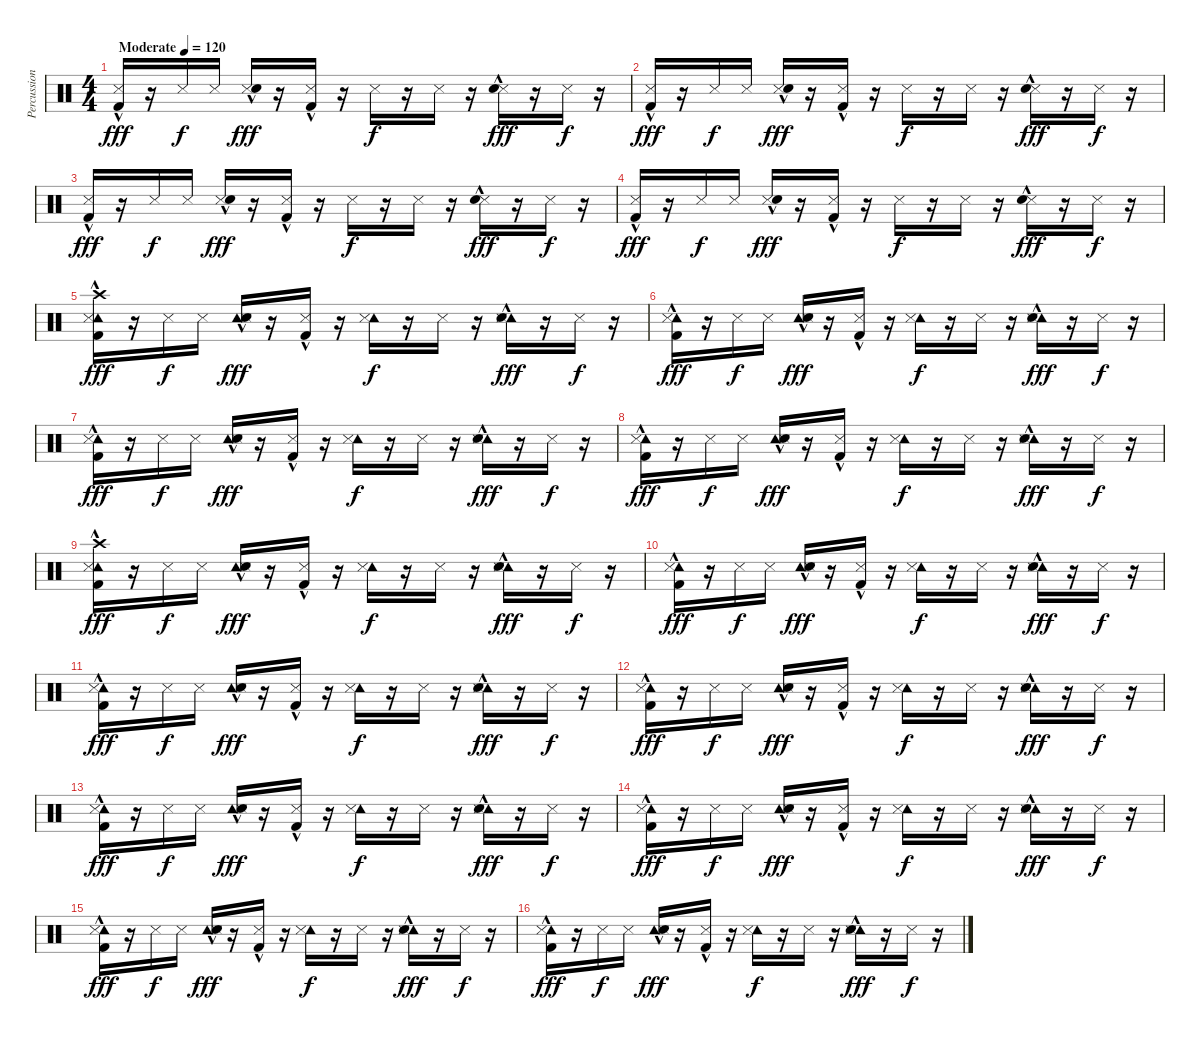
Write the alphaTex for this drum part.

\track ("Percussion" "Percussion") {instrument percussion}
\staff {score}
\articulation defaults
\ts (4 4)
\tempo (120 "Moderate")
\clef neutral
\ks c
("Snare (side stick) 3" "Kick (hit) 2"{hac}).16{dy fff} r.16 "Snare (side stick) 3".16{dy f} "Snare (side stick) 3".16 ("Snare (side stick) 3" "Snare (hit) 2"{hac}).16{dy fff} r.16 ("Snare (side stick) 3" "Kick (hit) 2"{hac}).16 r.16 "Snare (side stick) 3".16{dy f} r.16 "Snare (side stick) 3".16 r.16 ("Snare (side stick) 3" "Snare (hit) 2"{hac}).16{dy fff} r.16 "Snare (side stick) 3".16{dy f} r.16 |
("Snare (side stick) 3" "Kick (hit) 2"{hac}).16{dy fff} r.16 "Snare (side stick) 3".16{dy f} "Snare (side stick) 3".16 ("Snare (side stick) 3" "Snare (hit) 2"{hac}).16{dy fff} r.16 ("Snare (side stick) 3" "Kick (hit) 2"{hac}).16 r.16 "Snare (side stick) 3".16{dy f} r.16 "Snare (side stick) 3".16 r.16 ("Snare (side stick) 3" "Snare (hit) 2"{hac}).16{dy fff} r.16 "Snare (side stick) 3".16{dy f} r.16 |
("Snare (side stick) 3" "Kick (hit) 2"{hac}).16{dy fff} r.16 "Snare (side stick) 3".16{dy f} "Snare (side stick) 3".16 ("Snare (side stick) 3" "Snare (hit) 2"{hac}).16{dy fff} r.16 ("Snare (side stick) 3" "Kick (hit) 2"{hac}).16 r.16 "Snare (side stick) 3".16{dy f} r.16 "Snare (side stick) 3".16 r.16 ("Snare (side stick) 3" "Snare (hit) 2"{hac}).16{dy fff} r.16 "Snare (side stick) 3".16{dy f} r.16 |
("Snare (side stick) 3" "Kick (hit) 2"{hac}).16{dy fff} r.16 "Snare (side stick) 3".16{dy f} "Snare (side stick) 3".16 ("Snare (side stick) 3" "Snare (hit) 2"{hac}).16{dy fff} r.16 ("Snare (side stick) 3" "Kick (hit) 2"{hac}).16 r.16 "Snare (side stick) 3".16{dy f} r.16 "Snare (side stick) 3".16 r.16 ("Snare (side stick) 3" "Snare (hit) 2"{hac}).16{dy fff} r.16 "Snare (side stick) 3".16{dy f} r.16 |
("Tambourine (hit)" "Snare (side stick) 3" "Crash high (hit)" "Kick (hit) 2"{hac}).16{dy fff} r.16 "Snare (side stick) 3".16{dy f} "Snare (side stick) 3".16 ("Tambourine (hit)" "Snare (side stick) 3" "Snare (hit) 2"{hac}).16{dy fff} r.16 ("Snare (side stick) 3" "Kick (hit) 2"{hac}).16 r.16 ("Tambourine (hit)" "Snare (side stick) 3").16{dy f} r.16 "Snare (side stick) 3".16 r.16 ("Tambourine (hit)" "Snare (side stick) 3" "Snare (hit) 2"{hac}).16{dy fff} r.16 "Snare (side stick) 3".16{dy f} r.16 |
("Tambourine (hit)" "Snare (side stick) 3" "Kick (hit) 2"{hac}).16{dy fff} r.16 "Snare (side stick) 3".16{dy f} "Snare (side stick) 3".16 ("Tambourine (hit)" "Snare (side stick) 3" "Snare (hit) 2"{hac}).16{dy fff} r.16 ("Snare (side stick) 3" "Kick (hit) 2"{hac}).16 r.16 ("Tambourine (hit)" "Snare (side stick) 3").16{dy f} r.16 "Snare (side stick) 3".16 r.16 ("Tambourine (hit)" "Snare (side stick) 3" "Snare (hit) 2"{hac}).16{dy fff} r.16 "Snare (side stick) 3".16{dy f} r.16 |
("Tambourine (hit)" "Snare (side stick) 3" "Kick (hit) 2"{hac}).16{dy fff} r.16 "Snare (side stick) 3".16{dy f} "Snare (side stick) 3".16 ("Tambourine (hit)" "Snare (side stick) 3" "Snare (hit) 2"{hac}).16{dy fff} r.16 ("Snare (side stick) 3" "Kick (hit) 2"{hac}).16 r.16 ("Tambourine (hit)" "Snare (side stick) 3").16{dy f} r.16 "Snare (side stick) 3".16 r.16 ("Tambourine (hit)" "Snare (side stick) 3" "Snare (hit) 2"{hac}).16{dy fff} r.16 "Snare (side stick) 3".16{dy f} r.16 |
("Tambourine (hit)" "Snare (side stick) 3" "Kick (hit) 2"{hac}).16{dy fff} r.16 "Snare (side stick) 3".16{dy f} "Snare (side stick) 3".16 ("Tambourine (hit)" "Snare (side stick) 3" "Snare (hit) 2"{hac}).16{dy fff} r.16 ("Snare (side stick) 3" "Kick (hit) 2"{hac}).16 r.16 ("Tambourine (hit)" "Snare (side stick) 3").16{dy f} r.16 "Snare (side stick) 3".16 r.16 ("Tambourine (hit)" "Snare (side stick) 3" "Snare (hit) 2"{hac}).16{dy fff} r.16 "Snare (side stick) 3".16{dy f} r.16 |
("Tambourine (hit)" "Snare (side stick) 3" "Crash high (hit)" "Kick (hit) 2"{hac}).16{dy fff} r.16 "Snare (side stick) 3".16{dy f} "Snare (side stick) 3".16 ("Tambourine (hit)" "Snare (side stick) 3" "Snare (hit) 2"{hac}).16{dy fff} r.16 ("Snare (side stick) 3" "Kick (hit) 2"{hac}).16 r.16 ("Tambourine (hit)" "Snare (side stick) 3").16{dy f} r.16 "Snare (side stick) 3".16 r.16 ("Tambourine (hit)" "Snare (side stick) 3" "Snare (hit) 2"{hac}).16{dy fff} r.16 "Snare (side stick) 3".16{dy f} r.16 |
("Tambourine (hit)" "Snare (side stick) 3" "Kick (hit) 2"{hac}).16{dy fff} r.16 "Snare (side stick) 3".16{dy f} "Snare (side stick) 3".16 ("Tambourine (hit)" "Snare (side stick) 3" "Snare (hit) 2"{hac}).16{dy fff} r.16 ("Snare (side stick) 3" "Kick (hit) 2"{hac}).16 r.16 ("Tambourine (hit)" "Snare (side stick) 3").16{dy f} r.16 "Snare (side stick) 3".16 r.16 ("Tambourine (hit)" "Snare (side stick) 3" "Snare (hit) 2"{hac}).16{dy fff} r.16 "Snare (side stick) 3".16{dy f} r.16 |
("Tambourine (hit)" "Snare (side stick) 3" "Kick (hit) 2"{hac}).16{dy fff} r.16 "Snare (side stick) 3".16{dy f} "Snare (side stick) 3".16 ("Tambourine (hit)" "Snare (side stick) 3" "Snare (hit) 2"{hac}).16{dy fff} r.16 ("Snare (side stick) 3" "Kick (hit) 2"{hac}).16 r.16 ("Tambourine (hit)" "Snare (side stick) 3").16{dy f} r.16 "Snare (side stick) 3".16 r.16 ("Tambourine (hit)" "Snare (side stick) 3" "Snare (hit) 2"{hac}).16{dy fff} r.16 "Snare (side stick) 3".16{dy f} r.16 |
("Tambourine (hit)" "Snare (side stick) 3" "Kick (hit) 2"{hac}).16{dy fff} r.16 "Snare (side stick) 3".16{dy f} "Snare (side stick) 3".16 ("Tambourine (hit)" "Snare (side stick) 3" "Snare (hit) 2"{hac}).16{dy fff} r.16 ("Snare (side stick) 3" "Kick (hit) 2"{hac}).16 r.16 ("Tambourine (hit)" "Snare (side stick) 3").16{dy f} r.16 "Snare (side stick) 3".16 r.16 ("Tambourine (hit)" "Snare (side stick) 3" "Snare (hit) 2"{hac}).16{dy fff} r.16 "Snare (side stick) 3".16{dy f} r.16 |
("Tambourine (hit)" "Snare (side stick) 3" "Kick (hit) 2"{hac}).16{dy fff} r.16 "Snare (side stick) 3".16{dy f} "Snare (side stick) 3".16 ("Tambourine (hit)" "Snare (side stick) 3" "Snare (hit) 2"{hac}).16{dy fff} r.16 ("Snare (side stick) 3" "Kick (hit) 2"{hac}).16 r.16 ("Tambourine (hit)" "Snare (side stick) 3").16{dy f} r.16 "Snare (side stick) 3".16 r.16 ("Tambourine (hit)" "Snare (side stick) 3" "Snare (hit) 2"{hac}).16{dy fff} r.16 "Snare (side stick) 3".16{dy f} r.16 |
("Tambourine (hit)" "Snare (side stick) 3" "Kick (hit) 2"{hac}).16{dy fff} r.16 "Snare (side stick) 3".16{dy f} "Snare (side stick) 3".16 ("Tambourine (hit)" "Snare (side stick) 3" "Snare (hit) 2"{hac}).16{dy fff} r.16 ("Snare (side stick) 3" "Kick (hit) 2"{hac}).16 r.16 ("Tambourine (hit)" "Snare (side stick) 3").16{dy f} r.16 "Snare (side stick) 3".16 r.16 ("Tambourine (hit)" "Snare (side stick) 3" "Snare (hit) 2"{hac}).16{dy fff} r.16 "Snare (side stick) 3".16{dy f} r.16 |
("Tambourine (hit)" "Snare (side stick) 3" "Kick (hit) 2"{hac}).16{dy fff} r.16 "Snare (side stick) 3".16{dy f} "Snare (side stick) 3".16 ("Tambourine (hit)" "Snare (side stick) 3" "Snare (hit) 2"{hac}).16{dy fff} r.16 ("Snare (side stick) 3" "Kick (hit) 2"{hac}).16 r.16 ("Tambourine (hit)" "Snare (side stick) 3").16{dy f} r.16 "Snare (side stick) 3".16 r.16 ("Tambourine (hit)" "Snare (side stick) 3" "Snare (hit) 2"{hac}).16{dy fff} r.16 "Snare (side stick) 3".16{dy f} r.16 |
("Tambourine (hit)" "Snare (side stick) 3" "Kick (hit) 2"{hac}).16{dy fff} r.16 "Snare (side stick) 3".16{dy f} "Snare (side stick) 3".16 ("Tambourine (hit)" "Snare (side stick) 3" "Snare (hit) 2"{hac}).16{dy fff} r.16 ("Snare (side stick) 3" "Kick (hit) 2"{hac}).16 r.16 ("Tambourine (hit)" "Snare (side stick) 3").16{dy f} r.16 "Snare (side stick) 3".16 r.16 ("Tambourine (hit)" "Snare (side stick) 3" "Snare (hit) 2"{hac}).16{dy fff} r.16 "Snare (side stick) 3".16{dy f} r.16
